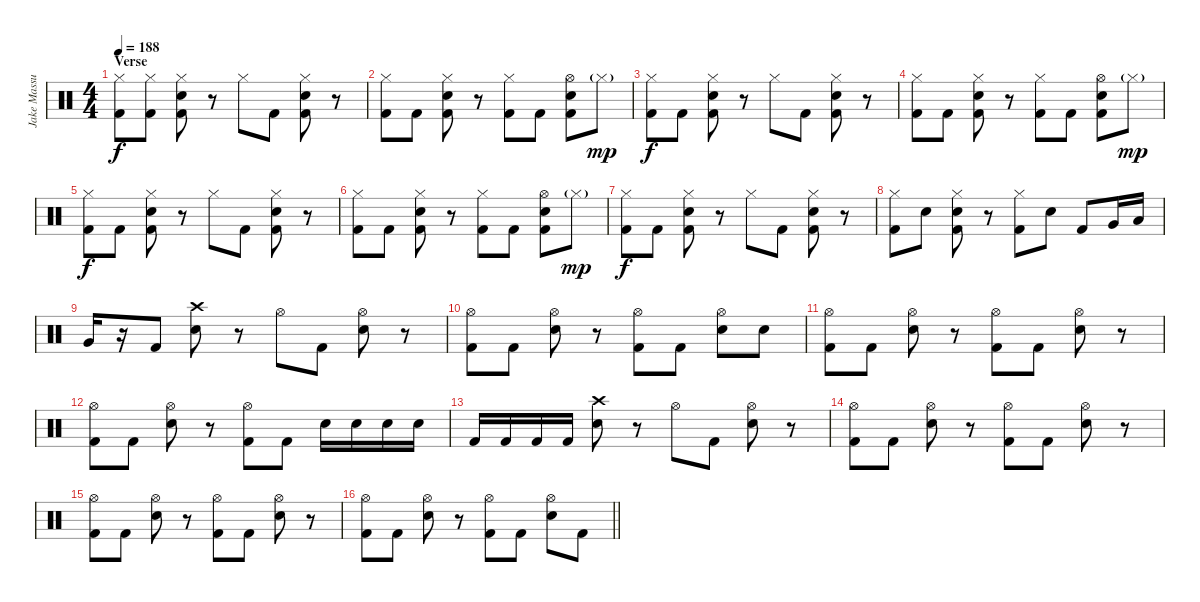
\track ("Jake Massucco" "Jake Massu") {instrument percussion}
\staff {score}
\articulation defaults
\ts (4 4)
\section ("" "Verse")
\tempo 188
\clef neutral
\ks c
("Hi-Hat (closed)" "Kick (hit) 2").8{dy f} ("Hi-Hat (closed)" "Kick (hit) 2").8 ("Hi-Hat (closed)" "Electric Snare (hit)" "Kick (hit) 2").8 r.8 "Hi-Hat (closed)".8 "Kick (hit) 2".8 ("Hi-Hat (closed)" "Electric Snare (hit)" "Kick (hit) 2").8 r.8 |
("Hi-Hat (closed)" "Kick (hit) 2").8 "Kick (hit) 2".8 ("Hi-Hat (closed)" "Electric Snare (hit)" "Kick (hit) 2").8 r.8 ("Hi-Hat (closed)" "Kick (hit) 2").8 "Kick (hit) 2".8 ("Hi-Hat (open)" "Electric Snare (hit)" "Kick (hit) 2").8 "Hi-Hat (closed)"{g}.8{dy mp} |
("Hi-Hat (closed)" "Kick (hit) 2").8{dy f} "Kick (hit) 2".8 ("Hi-Hat (closed)" "Electric Snare (hit)" "Kick (hit) 2").8 r.8 "Hi-Hat (closed)".8 "Kick (hit) 2".8 ("Hi-Hat (closed)" "Electric Snare (hit)" "Kick (hit) 2").8 r.8 |
("Hi-Hat (closed)" "Kick (hit) 2").8 "Kick (hit) 2".8 ("Hi-Hat (closed)" "Electric Snare (hit)" "Kick (hit) 2").8 r.8 ("Hi-Hat (closed)" "Kick (hit) 2").8 "Kick (hit) 2".8 ("Hi-Hat (open)" "Electric Snare (hit)" "Kick (hit) 2").8 "Hi-Hat (closed)"{g}.8{dy mp} |
("Hi-Hat (closed)" "Kick (hit) 2").8{dy f} "Kick (hit) 2".8 ("Hi-Hat (closed)" "Electric Snare (hit)" "Kick (hit) 2").8 r.8 "Hi-Hat (closed)".8 "Kick (hit) 2".8 ("Hi-Hat (closed)" "Electric Snare (hit)" "Kick (hit) 2").8 r.8 |
("Hi-Hat (closed)" "Kick (hit) 2").8 "Kick (hit) 2".8 ("Hi-Hat (closed)" "Electric Snare (hit)" "Kick (hit) 2").8 r.8 ("Hi-Hat (closed)" "Kick (hit) 2").8 "Kick (hit) 2".8 ("Hi-Hat (open)" "Electric Snare (hit)" "Kick (hit) 2").8 "Hi-Hat (closed)"{g}.8{dy mp} |
("Hi-Hat (closed)" "Kick (hit) 2").8{dy f} "Kick (hit) 2".8 ("Hi-Hat (closed)" "Electric Snare (hit)" "Kick (hit) 2").8 r.8 "Hi-Hat (closed)".8 "Kick (hit) 2".8 ("Hi-Hat (closed)" "Electric Snare (hit)" "Kick (hit) 2").8 r.8 |
("Hi-Hat (closed)" "Kick (hit) 2").8 "Electric Snare (hit)".8 ("Hi-Hat (closed)" "Electric Snare (hit)" "Kick (hit) 2").8 r.8 ("Hi-Hat (closed)" "Kick (hit) 2").8 "Electric Snare (hit)".8 "Kick (hit) 2".8 "Very Low Tom (hit)".16 "Low Floor Tom (hit)".16 |
"Very Low Tom (hit)".16 r.16 "Kick (hit) 2".8 ("Crash high (hit)" "Electric Snare (hit)").8 r.8 "Hi-Hat (open)".8 "Kick (hit) 2".8 ("Hi-Hat (open)" "Electric Snare (hit)").8 r.8 |
("Hi-Hat (open)" "Kick (hit) 2").8 "Kick (hit) 2".8 ("Hi-Hat (open)" "Electric Snare (hit)").8 r.8 ("Hi-Hat (open)" "Kick (hit) 2").8 "Kick (hit) 2".8 ("Hi-Hat (open)" "Electric Snare (hit)").8 "Electric Snare (hit)".8 |
("Hi-Hat (open)" "Kick (hit) 2").8 "Kick (hit) 2".8 ("Hi-Hat (open)" "Electric Snare (hit)").8 r.8 ("Hi-Hat (open)" "Kick (hit) 2").8 "Kick (hit) 2".8 ("Hi-Hat (open)" "Electric Snare (hit)").8 r.8 |
("Hi-Hat (open)" "Kick (hit) 2").8 "Kick (hit) 2".8 ("Hi-Hat (open)" "Electric Snare (hit)").8 r.8 ("Hi-Hat (open)" "Kick (hit) 2").8 "Kick (hit) 2".8 "Electric Snare (hit)".16 "Electric Snare (hit)".16 "Electric Snare (hit)".16 "Electric Snare (hit)".16 |
"Kick (hit) 2".16 "Kick (hit) 2".16 "Kick (hit) 2".16 "Kick (hit) 2".16 ("Crash high (hit)" "Electric Snare (hit)").8 r.8 "Hi-Hat (open)".8 "Kick (hit) 2".8 ("Hi-Hat (open)" "Electric Snare (hit)").8 r.8 |
("Hi-Hat (open)" "Kick (hit) 2").8 "Kick (hit) 2".8 ("Hi-Hat (open)" "Electric Snare (hit)").8 r.8 ("Hi-Hat (open)" "Kick (hit) 2").8 "Kick (hit) 2".8 ("Hi-Hat (open)" "Electric Snare (hit)").8 r.8 |
("Hi-Hat (open)" "Kick (hit) 2").8 "Kick (hit) 2".8 ("Hi-Hat (open)" "Electric Snare (hit)").8 r.8 ("Hi-Hat (open)" "Kick (hit) 2").8 "Kick (hit) 2".8 ("Hi-Hat (open)" "Electric Snare (hit)").8 r.8 |
\barLineRight lightlight
("Hi-Hat (open)" "Kick (hit) 2").8 "Kick (hit) 2".8 ("Hi-Hat (open)" "Electric Snare (hit)").8 r.8 ("Hi-Hat (open)" "Kick (hit) 2").8 "Kick (hit) 2".8 ("Hi-Hat (open)" "Electric Snare (hit)").8 "Kick (hit) 2".8
